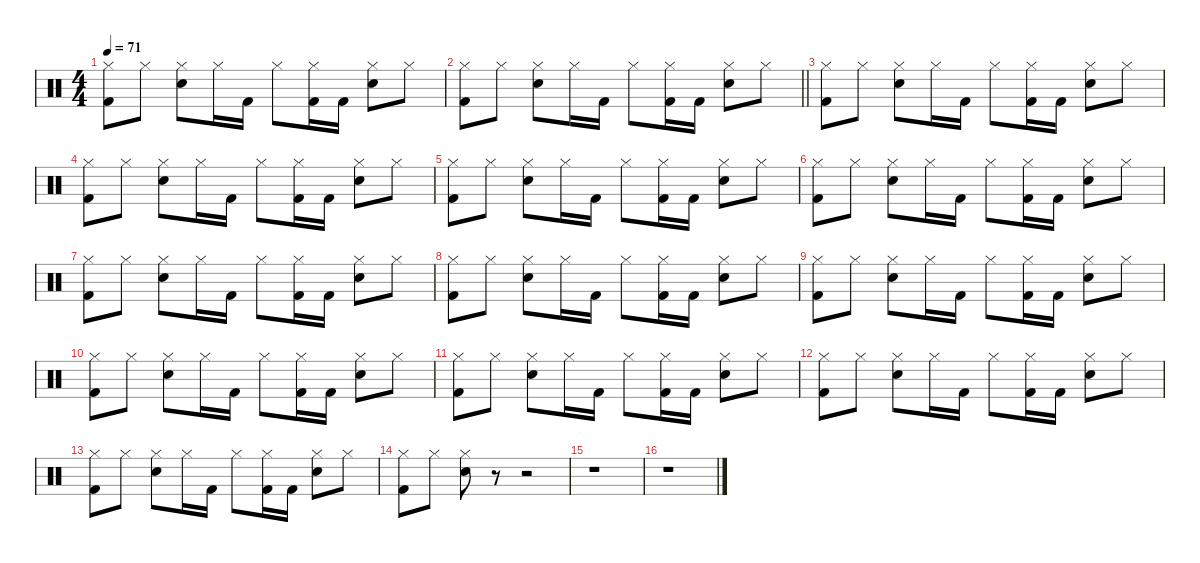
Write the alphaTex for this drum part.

\defaultSystemsLayout 4
\hideDynamics
\bracketExtendMode nobrackets
\singleTrackTrackNamePolicy hidden
\multiTrackTrackNamePolicy hidden
\firstSystemTrackNameMode fullname
\firstSystemTrackNameOrientation horizontal
\otherSystemsTrackNameOrientation horizontal
\track ("Drums" "drm.") {instrument percussion}
\staff {score}
\articulation defaults
\ts (4 4)
\tempo 71
\clef neutral
\ks c
("Hi-Hat (closed)" "Kick (hit) 2").8{dy f beam Down} "Hi-Hat (closed)".8{beam Down} ("Hi-Hat (closed)" "Snare (hit) 2").8{beam Down} "Hi-Hat (closed)".16{beam Down} "Kick (hit) 2".16{beam Down} "Hi-Hat (closed)".8{beam Down} ("Hi-Hat (closed)" "Kick (hit) 2").16{beam Down} "Kick (hit) 2".16{beam Down} ("Hi-Hat (closed)" "Snare (hit) 2").8{beam Down} "Hi-Hat (closed)".8{beam Down} |
\barLineRight lightlight
("Hi-Hat (closed)" "Kick (hit) 2").8{beam Down} "Hi-Hat (closed)".8{beam Down} ("Hi-Hat (closed)" "Snare (hit) 2").8{beam Down} "Hi-Hat (closed)".16{beam Down} "Kick (hit) 2".16{beam Down} "Hi-Hat (closed)".8{beam Down} ("Hi-Hat (closed)" "Kick (hit) 2").16{beam Down} "Kick (hit) 2".16{beam Down} ("Hi-Hat (closed)" "Snare (hit) 2").8{beam Down} "Hi-Hat (closed)".8{beam Down} |
("Hi-Hat (closed)" "Kick (hit) 2").8{beam Down} "Hi-Hat (closed)".8{beam Down} ("Hi-Hat (closed)" "Snare (hit) 2").8{beam Down} "Hi-Hat (closed)".16{beam Down} "Kick (hit) 2".16{beam Down} "Hi-Hat (closed)".8{beam Down} ("Hi-Hat (closed)" "Kick (hit) 2").16{beam Down} "Kick (hit) 2".16{beam Down} ("Hi-Hat (closed)" "Snare (hit) 2").8{beam Down} "Hi-Hat (closed)".8{beam Down} |
("Hi-Hat (closed)" "Kick (hit) 2").8{beam Down} "Hi-Hat (closed)".8{beam Down} ("Hi-Hat (closed)" "Snare (hit) 2").8{beam Down} "Hi-Hat (closed)".16{beam Down} "Kick (hit) 2".16{beam Down} "Hi-Hat (closed)".8{beam Down} ("Hi-Hat (closed)" "Kick (hit) 2").16{beam Down} "Kick (hit) 2".16{beam Down} ("Hi-Hat (closed)" "Snare (hit) 2").8{beam Down} "Hi-Hat (closed)".8{beam Down} |
("Hi-Hat (closed)" "Kick (hit) 2").8{beam Down} "Hi-Hat (closed)".8{beam Down} ("Hi-Hat (closed)" "Snare (hit) 2").8{beam Down} "Hi-Hat (closed)".16{beam Down} "Kick (hit) 2".16{beam Down} "Hi-Hat (closed)".8{beam Down} ("Hi-Hat (closed)" "Kick (hit) 2").16{beam Down} "Kick (hit) 2".16{beam Down} ("Hi-Hat (closed)" "Snare (hit) 2").8{beam Down} "Hi-Hat (closed)".8{beam Down} |
("Hi-Hat (closed)" "Kick (hit) 2").8{beam Down} "Hi-Hat (closed)".8{beam Down} ("Hi-Hat (closed)" "Snare (hit) 2").8{beam Down} "Hi-Hat (closed)".16{beam Down} "Kick (hit) 2".16{beam Down} "Hi-Hat (closed)".8{beam Down} ("Hi-Hat (closed)" "Kick (hit) 2").16{beam Down} "Kick (hit) 2".16{beam Down} ("Hi-Hat (closed)" "Snare (hit) 2").8{beam Down} "Hi-Hat (closed)".8{beam Down} |
("Hi-Hat (closed)" "Kick (hit) 2").8{beam Down} "Hi-Hat (closed)".8{beam Down} ("Hi-Hat (closed)" "Snare (hit) 2").8{beam Down} "Hi-Hat (closed)".16{beam Down} "Kick (hit) 2".16{beam Down} "Hi-Hat (closed)".8{beam Down} ("Hi-Hat (closed)" "Kick (hit) 2").16{beam Down} "Kick (hit) 2".16{beam Down} ("Hi-Hat (closed)" "Snare (hit) 2").8{beam Down} "Hi-Hat (closed)".8{beam Down} |
("Hi-Hat (closed)" "Kick (hit) 2").8{beam Down} "Hi-Hat (closed)".8{beam Down} ("Hi-Hat (closed)" "Snare (hit) 2").8{beam Down} "Hi-Hat (closed)".16{beam Down} "Kick (hit) 2".16{beam Down} "Hi-Hat (closed)".8{beam Down} ("Hi-Hat (closed)" "Kick (hit) 2").16{beam Down} "Kick (hit) 2".16{beam Down} ("Hi-Hat (closed)" "Snare (hit) 2").8{beam Down} "Hi-Hat (closed)".8{beam Down} |
("Hi-Hat (closed)" "Kick (hit) 2").8{beam Down} "Hi-Hat (closed)".8{beam Down} ("Hi-Hat (closed)" "Snare (hit) 2").8{beam Down} "Hi-Hat (closed)".16{beam Down} "Kick (hit) 2".16{beam Down} "Hi-Hat (closed)".8{beam Down} ("Hi-Hat (closed)" "Kick (hit) 2").16{beam Down} "Kick (hit) 2".16{beam Down} ("Hi-Hat (closed)" "Snare (hit) 2").8{beam Down} "Hi-Hat (closed)".8{beam Down} |
("Hi-Hat (closed)" "Kick (hit) 2").8{beam Down} "Hi-Hat (closed)".8{beam Down} ("Hi-Hat (closed)" "Snare (hit) 2").8{beam Down} "Hi-Hat (closed)".16{beam Down} "Kick (hit) 2".16{beam Down} "Hi-Hat (closed)".8{beam Down} ("Hi-Hat (closed)" "Kick (hit) 2").16{beam Down} "Kick (hit) 2".16{beam Down} ("Hi-Hat (closed)" "Snare (hit) 2").8{beam Down} "Hi-Hat (closed)".8{beam Down} |
("Hi-Hat (closed)" "Kick (hit) 2").8{beam Down} "Hi-Hat (closed)".8{beam Down} ("Hi-Hat (closed)" "Snare (hit) 2").8{beam Down} "Hi-Hat (closed)".16{beam Down} "Kick (hit) 2".16{beam Down} "Hi-Hat (closed)".8{beam Down} ("Hi-Hat (closed)" "Kick (hit) 2").16{beam Down} "Kick (hit) 2".16{beam Down} ("Hi-Hat (closed)" "Snare (hit) 2").8{beam Down} "Hi-Hat (closed)".8{beam Down} |
("Hi-Hat (closed)" "Kick (hit) 2").8{beam Down} "Hi-Hat (closed)".8{beam Down} ("Hi-Hat (closed)" "Snare (hit) 2").8{beam Down} "Hi-Hat (closed)".16{beam Down} "Kick (hit) 2".16{beam Down} "Hi-Hat (closed)".8{beam Down} ("Hi-Hat (closed)" "Kick (hit) 2").16{beam Down} "Kick (hit) 2".16{beam Down} ("Hi-Hat (closed)" "Snare (hit) 2").8{beam Down} "Hi-Hat (closed)".8{beam Down} |
("Hi-Hat (closed)" "Kick (hit) 2").8{beam Down} "Hi-Hat (closed)".8{beam Down} ("Hi-Hat (closed)" "Snare (hit) 2").8{beam Down} "Hi-Hat (closed)".16{beam Down} "Kick (hit) 2".16{beam Down} "Hi-Hat (closed)".8{beam Down} ("Hi-Hat (closed)" "Kick (hit) 2").16{beam Down} "Kick (hit) 2".16{beam Down} ("Hi-Hat (closed)" "Snare (hit) 2").8{beam Down} "Hi-Hat (closed)".8{beam Down} |
("Hi-Hat (closed)" "Kick (hit) 2").8{beam Down} "Hi-Hat (closed)".8{beam Down} ("Snare (hit) 2" "Hi-Hat (closed)").8{beam Down} r.8{beam Down} r.2{beam Down} |
r.1{beam Down} |
r.1{beam Down}
